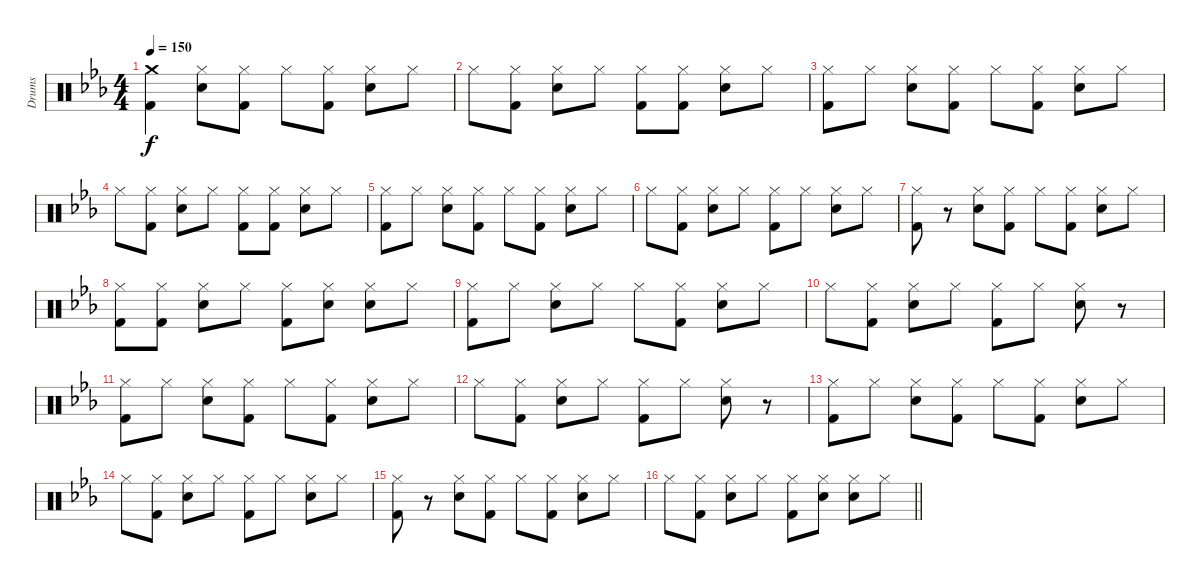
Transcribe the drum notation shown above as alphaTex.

\track ("Drums" "Drums") {instrument percussion}
\staff {score}
\articulation defaults
\ts (4 4)
\tempo 150
\clef neutral
\ks eb
("Crash medium (hit)" "Kick (hit) 2").4{dy f} ("Hi-Hat (closed)" "Electric Snare (hit)").8 ("Hi-Hat (closed)" "Kick (hit) 2").8 "Hi-Hat (closed)".8 ("Hi-Hat (closed)" "Kick (hit) 2").8 ("Hi-Hat (closed)" "Electric Snare (hit)").8 "Hi-Hat (closed)".8 |
"Hi-Hat (closed)".8 ("Hi-Hat (closed)" "Kick (hit) 2").8 ("Hi-Hat (closed)" "Electric Snare (hit)").8 "Hi-Hat (closed)".8 ("Hi-Hat (closed)" "Kick (hit) 2").8 ("Hi-Hat (closed)" "Kick (hit) 2").8 ("Hi-Hat (closed)" "Electric Snare (hit)").8 "Hi-Hat (closed)".8 |
("Hi-Hat (closed)" "Kick (hit) 2").8 "Hi-Hat (closed)".8 ("Hi-Hat (closed)" "Electric Snare (hit)").8 ("Hi-Hat (closed)" "Kick (hit) 2").8 "Hi-Hat (closed)".8 ("Hi-Hat (closed)" "Kick (hit) 2").8 ("Hi-Hat (closed)" "Electric Snare (hit)").8 "Hi-Hat (closed)".8 |
"Hi-Hat (closed)".8 ("Hi-Hat (closed)" "Kick (hit) 2").8 ("Hi-Hat (closed)" "Electric Snare (hit)").8 "Hi-Hat (closed)".8 ("Hi-Hat (closed)" "Kick (hit) 2").8 ("Hi-Hat (closed)" "Kick (hit) 2").8 ("Hi-Hat (closed)" "Electric Snare (hit)").8 "Hi-Hat (closed)".8 |
("Hi-Hat (closed)" "Kick (hit) 2").8 "Hi-Hat (closed)".8 ("Hi-Hat (closed)" "Electric Snare (hit)").8 ("Hi-Hat (closed)" "Kick (hit) 2").8 "Hi-Hat (closed)".8 ("Hi-Hat (closed)" "Kick (hit) 2").8 ("Hi-Hat (closed)" "Electric Snare (hit)").8 "Hi-Hat (closed)".8 |
"Hi-Hat (closed)".8 ("Hi-Hat (closed)" "Kick (hit) 2").8 ("Hi-Hat (closed)" "Electric Snare (hit)").8 "Hi-Hat (closed)".8 ("Hi-Hat (closed)" "Kick (hit) 2").8 "Hi-Hat (closed)".8 ("Hi-Hat (closed)" "Electric Snare (hit)").8 "Hi-Hat (closed)".8 |
("Hi-Hat (closed)" "Kick (hit) 2").8 r.8 ("Hi-Hat (closed)" "Electric Snare (hit)").8 ("Hi-Hat (closed)" "Kick (hit) 2").8 "Hi-Hat (closed)".8 ("Hi-Hat (closed)" "Kick (hit) 2").8 ("Hi-Hat (closed)" "Electric Snare (hit)").8 "Hi-Hat (closed)".8 |
("Hi-Hat (closed)" "Kick (hit) 2").8 ("Hi-Hat (closed)" "Kick (hit) 2").8 ("Hi-Hat (closed)" "Electric Snare (hit)").8 "Hi-Hat (closed)".8 ("Hi-Hat (closed)" "Kick (hit) 2").8 ("Hi-Hat (closed)" "Electric Snare (hit)").8 ("Hi-Hat (closed)" "Electric Snare (hit)").8 "Hi-Hat (closed)".8 |
("Hi-Hat (closed)" "Kick (hit) 2").8 "Hi-Hat (closed)".8 ("Hi-Hat (closed)" "Electric Snare (hit)").8 "Hi-Hat (closed)".8 "Hi-Hat (closed)".8 ("Hi-Hat (closed)" "Kick (hit) 2").8 ("Hi-Hat (closed)" "Electric Snare (hit)").8 "Hi-Hat (closed)".8 |
"Hi-Hat (closed)".8 ("Hi-Hat (closed)" "Kick (hit) 2").8 ("Hi-Hat (closed)" "Electric Snare (hit)").8 "Hi-Hat (closed)".8 ("Hi-Hat (closed)" "Kick (hit) 2").8 "Hi-Hat (closed)".8 ("Hi-Hat (closed)" "Electric Snare (hit)").8 r.8 |
("Hi-Hat (closed)" "Kick (hit) 2").8 "Hi-Hat (closed)".8 ("Hi-Hat (closed)" "Electric Snare (hit)").8 ("Hi-Hat (closed)" "Kick (hit) 2").8 "Hi-Hat (closed)".8 ("Hi-Hat (closed)" "Kick (hit) 2").8 ("Hi-Hat (closed)" "Electric Snare (hit)").8 "Hi-Hat (closed)".8 |
"Hi-Hat (closed)".8 ("Hi-Hat (closed)" "Kick (hit) 2").8 ("Hi-Hat (closed)" "Electric Snare (hit)").8 "Hi-Hat (closed)".8 ("Hi-Hat (closed)" "Kick (hit) 2").8 "Hi-Hat (closed)".8 ("Hi-Hat (closed)" "Electric Snare (hit)").8 r.8 |
("Hi-Hat (closed)" "Kick (hit) 2").8 "Hi-Hat (closed)".8 ("Hi-Hat (closed)" "Electric Snare (hit)").8 ("Hi-Hat (closed)" "Kick (hit) 2").8 "Hi-Hat (closed)".8 ("Hi-Hat (closed)" "Kick (hit) 2").8 ("Hi-Hat (closed)" "Electric Snare (hit)").8 "Hi-Hat (closed)".8 |
"Hi-Hat (closed)".8 ("Hi-Hat (closed)" "Kick (hit) 2").8 ("Hi-Hat (closed)" "Electric Snare (hit)").8 "Hi-Hat (closed)".8 ("Hi-Hat (closed)" "Kick (hit) 2").8 "Hi-Hat (closed)".8 ("Hi-Hat (closed)" "Electric Snare (hit)").8 "Hi-Hat (closed)".8 |
("Hi-Hat (closed)" "Kick (hit) 2").8 r.8 ("Hi-Hat (closed)" "Electric Snare (hit)").8 ("Hi-Hat (closed)" "Kick (hit) 2").8 "Hi-Hat (closed)".8 ("Hi-Hat (closed)" "Kick (hit) 2").8 ("Hi-Hat (closed)" "Electric Snare (hit)").8 "Hi-Hat (closed)".8 |
\barLineRight lightlight "Hi-Hat (closed)".8
("Hi-Hat (closed)" "Kick (hit) 2").8 ("Hi-Hat (closed)" "Electric Snare (hit)").8 "Hi-Hat (closed)".8 ("Hi-Hat (closed)" "Kick (hit) 2").8 ("Hi-Hat (closed)" "Electric Snare (hit)").8 ("Hi-Hat (closed)" "Electric Snare (hit)").8 "Hi-Hat (closed)".8
